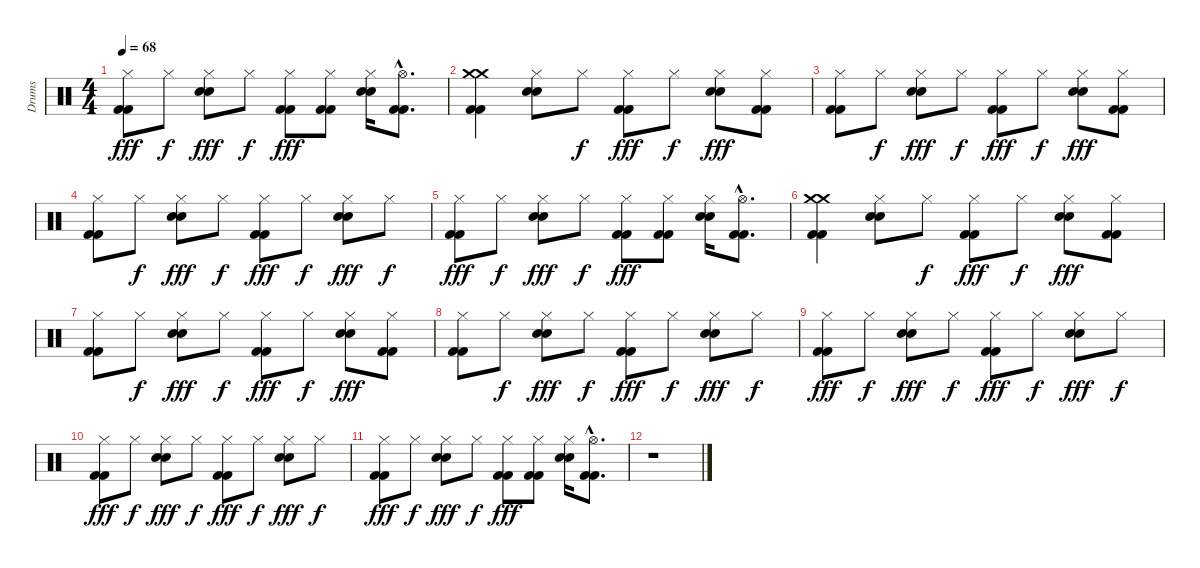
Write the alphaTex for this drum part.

\track ("Drums" "Drums") {instrument percussion}
\staff {score}
\articulation defaults
\ts (4 4)
\tempo 68
\clef neutral
\ks c
("Hi-Hat (closed)" "Kick (hit) 2" "Kick (hit) 2").8{dy fff} "Hi-Hat (closed)".8{dy f} ("Hi-Hat (closed)" "Electric Snare (hit)" "Electric Snare (hit)").8{dy fff} "Hi-Hat (closed)".8{dy f} ("Hi-Hat (closed)" "Kick (hit) 2" "Kick (hit) 2").8{dy fff} ("Hi-Hat (closed)" "Kick (hit) 2" "Kick (hit) 2").8 ("Hi-Hat (closed)" "Electric Snare (hit)" "Electric Snare (hit)").16 ("Hi-Hat (open)"{hac} "Kick (hit) 2"{hac} "Kick (hit) 2"{hac}).8{d} |
("Crash medium (hit)" "Crash medium (hit)" "Kick (hit) 2" "Kick (hit) 2").4 ("Hi-Hat (closed)" "Electric Snare (hit)" "Electric Snare (hit)").8 "Hi-Hat (closed)".8{dy f} ("Hi-Hat (closed)" "Kick (hit) 2" "Kick (hit) 2").8{dy fff} "Hi-Hat (closed)".8{dy f} ("Hi-Hat (closed)" "Electric Snare (hit)" "Electric Snare (hit)").8{dy fff} ("Hi-Hat (closed)" "Kick (hit) 2" "Kick (hit) 2").8 |
("Hi-Hat (closed)" "Kick (hit) 2" "Kick (hit) 2").8 "Hi-Hat (closed)".8{dy f} ("Hi-Hat (closed)" "Electric Snare (hit)" "Electric Snare (hit)").8{dy fff} "Hi-Hat (closed)".8{dy f} ("Hi-Hat (closed)" "Kick (hit) 2" "Kick (hit) 2").8{dy fff} "Hi-Hat (closed)".8{dy f} ("Hi-Hat (closed)" "Electric Snare (hit)" "Electric Snare (hit)").8{dy fff} ("Hi-Hat (closed)" "Kick (hit) 2" "Kick (hit) 2").8 |
("Hi-Hat (closed)" "Kick (hit) 2" "Kick (hit) 2").8 "Hi-Hat (closed)".8{dy f} ("Hi-Hat (closed)" "Electric Snare (hit)" "Electric Snare (hit)").8{dy fff} "Hi-Hat (closed)".8{dy f} ("Hi-Hat (closed)" "Kick (hit) 2" "Kick (hit) 2").8{dy fff} "Hi-Hat (closed)".8{dy f} ("Hi-Hat (closed)" "Electric Snare (hit)" "Electric Snare (hit)").8{dy fff} "Hi-Hat (closed)".8{dy f} |
("Hi-Hat (closed)" "Kick (hit) 2" "Kick (hit) 2").8{dy fff} "Hi-Hat (closed)".8{dy f} ("Hi-Hat (closed)" "Electric Snare (hit)" "Electric Snare (hit)").8{dy fff} "Hi-Hat (closed)".8{dy f} ("Hi-Hat (closed)" "Kick (hit) 2" "Kick (hit) 2").8{dy fff} ("Hi-Hat (closed)" "Kick (hit) 2" "Kick (hit) 2").8 ("Hi-Hat (closed)" "Electric Snare (hit)" "Electric Snare (hit)").16 ("Hi-Hat (open)"{hac} "Kick (hit) 2"{hac} "Kick (hit) 2"{hac}).8{d} |
("Crash medium (hit)" "Crash medium (hit)" "Kick (hit) 2" "Kick (hit) 2").4 ("Hi-Hat (closed)" "Electric Snare (hit)" "Electric Snare (hit)").8 "Hi-Hat (closed)".8{dy f} ("Hi-Hat (closed)" "Kick (hit) 2" "Kick (hit) 2").8{dy fff} "Hi-Hat (closed)".8{dy f} ("Hi-Hat (closed)" "Electric Snare (hit)" "Electric Snare (hit)").8{dy fff} ("Hi-Hat (closed)" "Kick (hit) 2" "Kick (hit) 2").8 |
("Hi-Hat (closed)" "Kick (hit) 2" "Kick (hit) 2").8 "Hi-Hat (closed)".8{dy f} ("Hi-Hat (closed)" "Electric Snare (hit)" "Electric Snare (hit)").8{dy fff} "Hi-Hat (closed)".8{dy f} ("Hi-Hat (closed)" "Kick (hit) 2" "Kick (hit) 2").8{dy fff} "Hi-Hat (closed)".8{dy f} ("Hi-Hat (closed)" "Electric Snare (hit)" "Electric Snare (hit)").8{dy fff} ("Hi-Hat (closed)" "Kick (hit) 2" "Kick (hit) 2").8 |
("Hi-Hat (closed)" "Kick (hit) 2" "Kick (hit) 2").8 "Hi-Hat (closed)".8{dy f} ("Hi-Hat (closed)" "Electric Snare (hit)" "Electric Snare (hit)").8{dy fff} "Hi-Hat (closed)".8{dy f} ("Hi-Hat (closed)" "Kick (hit) 2" "Kick (hit) 2").8{dy fff} "Hi-Hat (closed)".8{dy f} ("Hi-Hat (closed)" "Electric Snare (hit)" "Electric Snare (hit)").8{dy fff} "Hi-Hat (closed)".8{dy f} |
("Hi-Hat (closed)" "Kick (hit) 2" "Kick (hit) 2").8{dy fff} "Hi-Hat (closed)".8{dy f} ("Hi-Hat (closed)" "Electric Snare (hit)" "Electric Snare (hit)").8{dy fff} "Hi-Hat (closed)".8{dy f} ("Hi-Hat (closed)" "Kick (hit) 2" "Kick (hit) 2").8{dy fff} "Hi-Hat (closed)".8{dy f} ("Hi-Hat (closed)" "Electric Snare (hit)" "Electric Snare (hit)").8{dy fff} "Hi-Hat (closed)".8{dy f} |
("Hi-Hat (closed)" "Kick (hit) 2" "Kick (hit) 2").8{dy fff} "Hi-Hat (closed)".8{dy f} ("Hi-Hat (closed)" "Electric Snare (hit)" "Electric Snare (hit)").8{dy fff} "Hi-Hat (closed)".8{dy f} ("Hi-Hat (closed)" "Kick (hit) 2" "Kick (hit) 2").8{dy fff} "Hi-Hat (closed)".8{dy f} ("Hi-Hat (closed)" "Electric Snare (hit)" "Electric Snare (hit)").8{dy fff} "Hi-Hat (closed)".8{dy f} |
("Hi-Hat (closed)" "Kick (hit) 2" "Kick (hit) 2").8{dy fff} "Hi-Hat (closed)".8{dy f} ("Hi-Hat (closed)" "Electric Snare (hit)" "Electric Snare (hit)").8{dy fff} "Hi-Hat (closed)".8{dy f} ("Hi-Hat (closed)" "Kick (hit) 2" "Kick (hit) 2").8{dy fff} ("Hi-Hat (closed)" "Kick (hit) 2" "Kick (hit) 2").8 ("Hi-Hat (closed)" "Electric Snare (hit)" "Electric Snare (hit)").16 ("Hi-Hat (open)"{hac} "Kick (hit) 2"{hac} "Kick (hit) 2"{hac}).8{d} |
r.1
